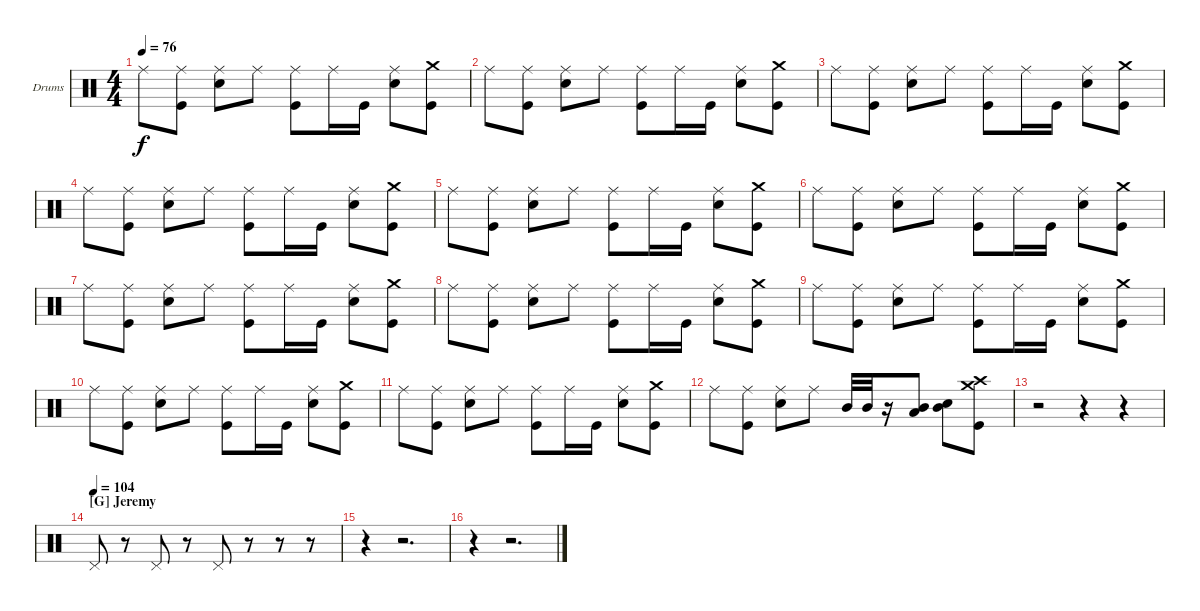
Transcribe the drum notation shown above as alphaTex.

\defaultSystemsLayout 4
\bracketExtendMode nobrackets
\firstSystemTrackNameOrientation horizontal
\otherSystemsTrackNameOrientation horizontal
\track ("Dave Krusen" "Drums") {instrument percussion}
\staff {score}
\articulation defaults
\ts (4 4)
\tempo 76
\clef neutral
\ks c "Ride (middle)".8{dy f}
("Kick (hit)" "Ride (middle)").8 ("Snare (hit) 2" "Ride (middle)").8 "Ride (middle)".8 ("Kick (hit)" "Ride (middle)").8 "Ride (middle)".16 "Kick (hit)".16 ("Snare (hit) 2" "Ride (middle)").8 ("Kick (hit)" "Crash medium (hit)").8 |
"Ride (middle)".8 ("Kick (hit)" "Ride (middle)").8 ("Snare (hit) 2" "Ride (middle)").8 "Ride (middle)".8 ("Kick (hit)" "Ride (middle)").8 "Ride (middle)".16 "Kick (hit)".16 ("Snare (hit) 2" "Ride (middle)").8 ("Kick (hit)" "Crash medium (hit)").8 |
"Ride (middle)".8 ("Kick (hit)" "Ride (middle)").8 ("Snare (hit) 2" "Ride (middle)").8 "Ride (middle)".8 ("Kick (hit)" "Ride (middle)").8 "Ride (middle)".16 "Kick (hit)".16 ("Snare (hit) 2" "Ride (middle)").8 ("Kick (hit)" "Crash medium (hit)").8 |
"Ride (middle)".8 ("Kick (hit)" "Ride (middle)").8 ("Snare (hit) 2" "Ride (middle)").8 "Ride (middle)".8 ("Kick (hit)" "Ride (middle)").8 "Ride (middle)".16 "Kick (hit)".16 ("Snare (hit) 2" "Ride (middle)").8 ("Kick (hit)" "Crash medium (hit)").8 |
"Ride (middle)".8 ("Kick (hit)" "Ride (middle)").8 ("Snare (hit) 2" "Ride (middle)").8 "Ride (middle)".8 ("Kick (hit)" "Ride (middle)").8 "Ride (middle)".16 "Kick (hit)".16 ("Snare (hit) 2" "Ride (middle)").8 ("Kick (hit)" "Crash medium (hit)").8 |
"Ride (middle)".8 ("Kick (hit)" "Ride (middle)").8 ("Snare (hit) 2" "Ride (middle)").8 "Ride (middle)".8 ("Kick (hit)" "Ride (middle)").8 "Ride (middle)".16 "Kick (hit)".16 ("Snare (hit) 2" "Ride (middle)").8 ("Kick (hit)" "Crash medium (hit)").8 |
"Ride (middle)".8 ("Kick (hit)" "Ride (middle)").8 ("Snare (hit) 2" "Ride (middle)").8 "Ride (middle)".8 ("Kick (hit)" "Ride (middle)").8 "Ride (middle)".16 "Kick (hit)".16 ("Snare (hit) 2" "Ride (middle)").8 ("Kick (hit)" "Crash medium (hit)").8 |
"Ride (middle)".8 ("Kick (hit)" "Ride (middle)").8 ("Snare (hit) 2" "Ride (middle)").8 "Ride (middle)".8 ("Kick (hit)" "Ride (middle)").8 "Ride (middle)".16 "Kick (hit)".16 ("Snare (hit) 2" "Ride (middle)").8 ("Kick (hit)" "Crash medium (hit)").8 |
"Ride (middle)".8 ("Kick (hit)" "Ride (middle)").8 ("Snare (hit) 2" "Ride (middle)").8 "Ride (middle)".8 ("Kick (hit)" "Ride (middle)").8 "Ride (middle)".16 "Kick (hit)".16 ("Snare (hit) 2" "Ride (middle)").8 ("Kick (hit)" "Crash medium (hit)").8 |
"Ride (middle)".8 ("Kick (hit)" "Ride (middle)").8 ("Snare (hit) 2" "Ride (middle)").8 "Ride (middle)".8 ("Kick (hit)" "Ride (middle)").8 "Ride (middle)".16 "Kick (hit)".16 ("Snare (hit) 2" "Ride (middle)").8 ("Kick (hit)" "Crash medium (hit)").8 |
"Ride (middle)".8 ("Kick (hit)" "Ride (middle)").8 ("Snare (hit) 2" "Ride (middle)").8 "Ride (middle)".8 ("Kick (hit)" "Ride (middle)").8 "Ride (middle)".16 "Kick (hit)".16 ("Snare (hit) 2" "Ride (middle)").8 ("Kick (hit)" "Crash medium (hit)").8 |
"Ride (middle)".8 ("Kick (hit)" "Ride (middle)").8 ("Snare (hit) 2" "Ride (middle)").8 "Ride (middle)".8 "Mid Tom (hit)".32 "Mid Tom (hit)".32 r.16 ("Low Tom (hit)" "Mid Tom (hit)").8 ("Mid Tom (hit)" "Snare (hit) 2").8 ("Crash high (hit)" "Crash medium (hit)" "Kick (hit)").8 |
r.2 r.4 r.4 |
\section ("G" "Jeremy")
\tempo (104)
"Pedal Hi-Hat (hit)".8 r.8 "Pedal Hi-Hat (hit)".8 r.8 "Pedal Hi-Hat (hit)".8 r.8 r.8 r.8 |
r.4 r.2{d} |
r.4 r.2{d}
